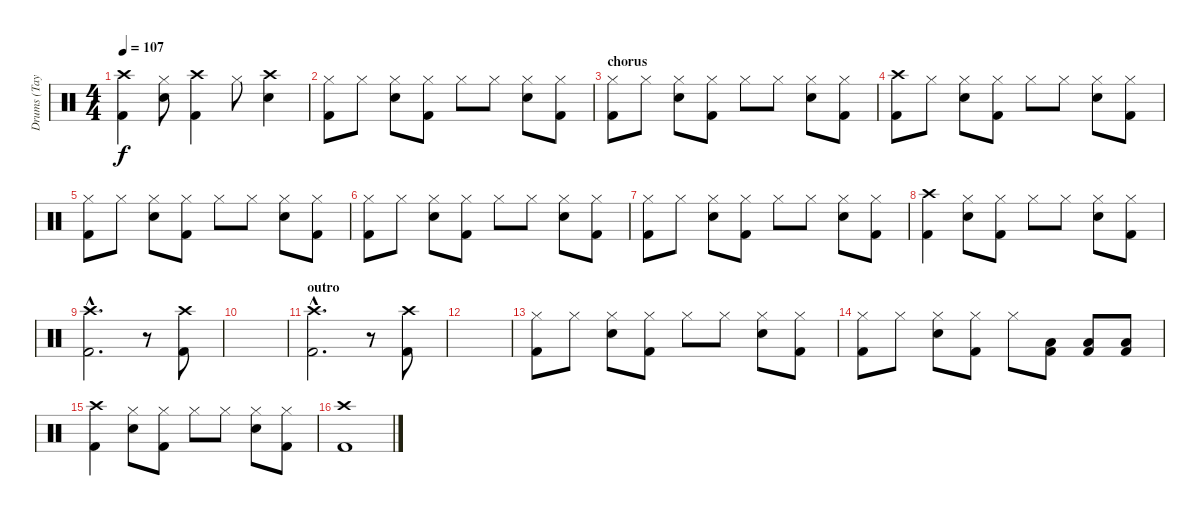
\track ("Drums (Taylor)" "Drums (Tay") {instrument percussion}
\staff {score}
\articulation defaults
\ts (4 4)
\tempo 107
\clef neutral
\ks c
("Crash high (hit)" "Kick (hit) 2").4{dy f} ("Hi-Hat (closed)" "Electric Snare (hit)").8 ("Crash high (hit)" "Kick (hit) 2").4 "Hi-Hat (closed)".8 ("Crash high (hit)" "Electric Snare (hit)").4 |
("Hi-Hat (closed)" "Kick (hit) 2").8 "Hi-Hat (closed)".8 ("Hi-Hat (closed)" "Electric Snare (hit)").8 ("Hi-Hat (closed)" "Kick (hit) 2").8 "Hi-Hat (closed)".8 "Hi-Hat (closed)".8 ("Hi-Hat (closed)" "Electric Snare (hit)").8 ("Hi-Hat (closed)" "Kick (hit) 2").8 |
\section ("" "chorus")
("Hi-Hat (closed)" "Kick (hit) 2").8 "Hi-Hat (closed)".8 ("Hi-Hat (closed)" "Electric Snare (hit)").8 ("Hi-Hat (closed)" "Kick (hit) 2").8 "Hi-Hat (closed)".8 "Hi-Hat (closed)".8 ("Hi-Hat (closed)" "Electric Snare (hit)").8 ("Hi-Hat (closed)" "Kick (hit) 2").8 |
("Crash high (hit)" "Kick (hit) 2").8 "Hi-Hat (closed)".8 ("Hi-Hat (closed)" "Electric Snare (hit)").8 ("Hi-Hat (closed)" "Kick (hit) 2").8 "Hi-Hat (closed)".8 "Hi-Hat (closed)".8 ("Hi-Hat (closed)" "Electric Snare (hit)").8 ("Hi-Hat (closed)" "Kick (hit) 2").8 |
("Hi-Hat (closed)" "Kick (hit) 2").8 "Hi-Hat (closed)".8 ("Hi-Hat (closed)" "Electric Snare (hit)").8 ("Hi-Hat (closed)" "Kick (hit) 2").8 "Hi-Hat (closed)".8 "Hi-Hat (closed)".8 ("Hi-Hat (closed)" "Electric Snare (hit)").8 ("Hi-Hat (closed)" "Kick (hit) 2").8 |
("Hi-Hat (closed)" "Kick (hit) 2").8 "Hi-Hat (closed)".8 ("Hi-Hat (closed)" "Electric Snare (hit)").8 ("Hi-Hat (closed)" "Kick (hit) 2").8 "Hi-Hat (closed)".8 "Hi-Hat (closed)".8 ("Hi-Hat (closed)" "Electric Snare (hit)").8 ("Hi-Hat (closed)" "Kick (hit) 2").8 |
("Hi-Hat (closed)" "Kick (hit) 2").8 "Hi-Hat (closed)".8 ("Hi-Hat (closed)" "Electric Snare (hit)").8 ("Hi-Hat (closed)" "Kick (hit) 2").8 "Hi-Hat (closed)".8 "Hi-Hat (closed)".8 ("Hi-Hat (closed)" "Electric Snare (hit)").8 ("Hi-Hat (closed)" "Kick (hit) 2").8 |
("Crash high (hit)" "Kick (hit) 2").4 ("Hi-Hat (closed)" "Electric Snare (hit)").8 ("Hi-Hat (closed)" "Kick (hit) 2").8 "Hi-Hat (closed)".8 "Hi-Hat (closed)".8 ("Hi-Hat (closed)" "Electric Snare (hit)").8 ("Hi-Hat (closed)" "Kick (hit) 2").8 |
("Crash high (hit)"{hac} "Kick (hit) 2"{hac}).2{d} r.8 ("Crash high (hit)" "Kick (hit) 2").8 |
|
\section ("" "outro")
("Crash high (hit)"{hac} "Kick (hit) 2"{hac}).2{d} r.8 ("Crash high (hit)" "Kick (hit) 2").8 |
|
("Hi-Hat (closed)" "Kick (hit) 2").8 "Hi-Hat (closed)".8 ("Hi-Hat (closed)" "Electric Snare (hit)").8 ("Hi-Hat (closed)" "Kick (hit) 2").8 "Hi-Hat (closed)".8 "Hi-Hat (closed)".8 ("Hi-Hat (closed)" "Electric Snare (hit)").8 ("Hi-Hat (closed)" "Kick (hit) 2").8 |
("Hi-Hat (closed)" "Kick (hit) 2").8 "Hi-Hat (closed)".8 ("Hi-Hat (closed)" "Electric Snare (hit)").8 ("Hi-Hat (closed)" "Kick (hit) 2").8 "Hi-Hat (closed)".8 ("Low Tom (hit)" "Kick (hit) 2").8 ("Low Tom (hit)" "Kick (hit) 2").8 ("Low Tom (hit)" "Kick (hit) 2").8 |
("Crash high (hit)" "Kick (hit) 2").4 ("Hi-Hat (closed)" "Electric Snare (hit)").8 ("Hi-Hat (closed)" "Kick (hit) 2").8 "Hi-Hat (closed)".8 "Hi-Hat (closed)".8 ("Hi-Hat (closed)" "Electric Snare (hit)").8 ("Hi-Hat (closed)" "Kick (hit) 2").8 |
("Crash high (hit)" "Kick (hit) 2").1
